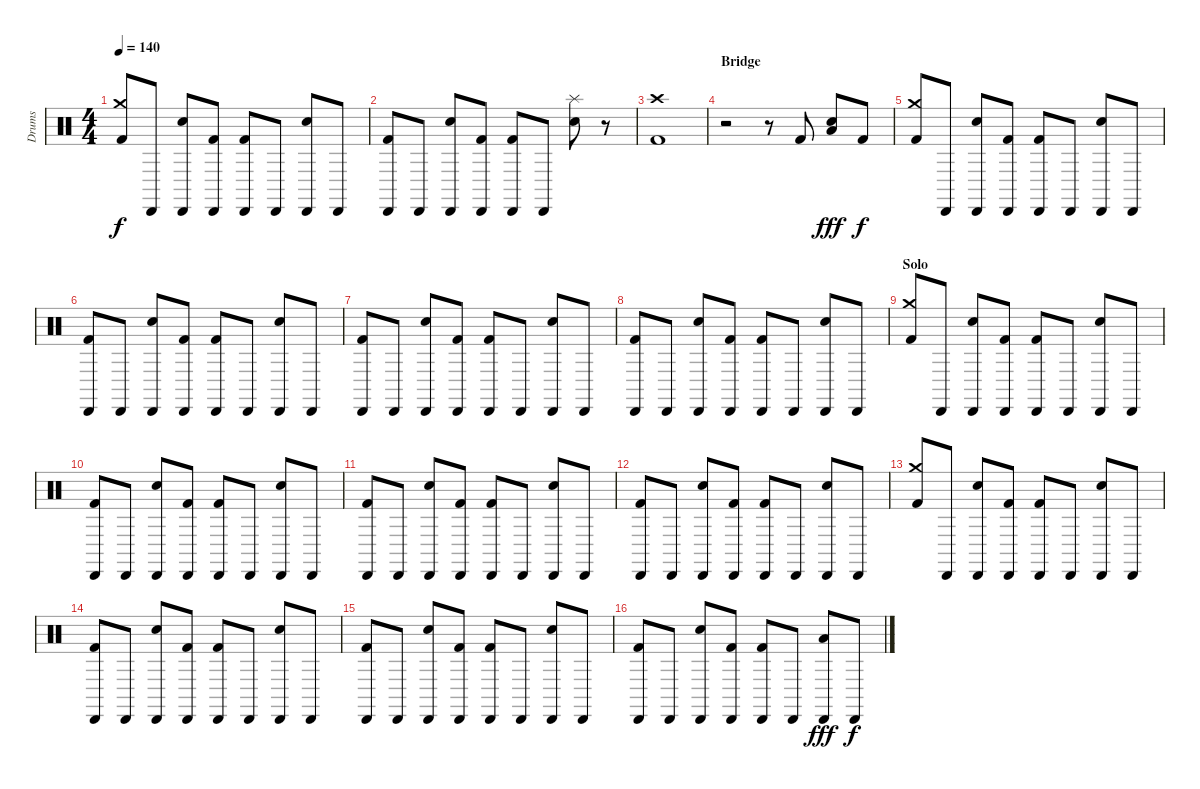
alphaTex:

\track ("Drums" "Drums") {instrument percussion}
\staff {score}
\articulation defaults
\ts (4 4)
\tempo 140
\clef neutral
\ks c
("Crash medium (hit)" "Kick (hit) 2").8{dy f} "Cabasa (hit)".8 ("Cabasa (hit)" "Electric Snare (hit)").8 ("Cabasa (hit)" "Kick (hit) 2").8 ("Cabasa (hit)" "Kick (hit) 2").8 "Cabasa (hit)".8 ("Cabasa (hit)" "Electric Snare (hit)").8 "Cabasa (hit)".8 |
("Cabasa (hit)" "Kick (hit) 2").8 "Cabasa (hit)".8 ("Cabasa (hit)" "Electric Snare (hit)").8 ("Cabasa (hit)" "Kick (hit) 2").8 ("Cabasa (hit)" "Kick (hit) 2").8 "Cabasa (hit)".8 ("Splash (hit)" "Electric Snare (hit)").8 r.8 |
("Crash high (hit)" "Kick (hit) 2").1 |
\section ("" "Bridge")
r.2 r.8 "Kick (hit) 2".8 ("Electric Snare (hit)" "Low Floor Tom (hit)").8{dy fff} "Kick (hit) 2".8{dy f} |
("Crash medium (hit)" "Kick (hit) 2").8 "Cabasa (hit)".8 ("Cabasa (hit)" "Electric Snare (hit)").8 ("Cabasa (hit)" "Kick (hit) 2").8 ("Cabasa (hit)" "Kick (hit) 2").8 "Cabasa (hit)".8 ("Cabasa (hit)" "Electric Snare (hit)").8 "Cabasa (hit)".8 |
("Cabasa (hit)" "Kick (hit) 2").8 "Cabasa (hit)".8 ("Cabasa (hit)" "Electric Snare (hit)").8 ("Cabasa (hit)" "Kick (hit) 2").8 ("Cabasa (hit)" "Kick (hit) 2").8 "Cabasa (hit)".8 ("Cabasa (hit)" "Electric Snare (hit)").8 "Cabasa (hit)".8 |
("Cabasa (hit)" "Kick (hit) 2").8 "Cabasa (hit)".8 ("Cabasa (hit)" "Electric Snare (hit)").8 ("Cabasa (hit)" "Kick (hit) 2").8 ("Cabasa (hit)" "Kick (hit) 2").8 "Cabasa (hit)".8 ("Cabasa (hit)" "Electric Snare (hit)").8 "Cabasa (hit)".8 |
("Cabasa (hit)" "Kick (hit) 2").8 "Cabasa (hit)".8 ("Cabasa (hit)" "Electric Snare (hit)").8 ("Cabasa (hit)" "Kick (hit) 2").8 ("Cabasa (hit)" "Kick (hit) 2").8 "Cabasa (hit)".8 ("Cabasa (hit)" "Electric Snare (hit)").8 "Cabasa (hit)".8 |
\section ("" "Solo")
("Crash medium (hit)" "Kick (hit) 2").8 "Cabasa (hit)".8 ("Cabasa (hit)" "Electric Snare (hit)").8 ("Cabasa (hit)" "Kick (hit) 2").8 ("Cabasa (hit)" "Kick (hit) 2").8 "Cabasa (hit)".8 ("Cabasa (hit)" "Electric Snare (hit)").8 "Cabasa (hit)".8 |
("Cabasa (hit)" "Kick (hit) 2").8 "Cabasa (hit)".8 ("Cabasa (hit)" "Electric Snare (hit)").8 ("Cabasa (hit)" "Kick (hit) 2").8 ("Cabasa (hit)" "Kick (hit) 2").8 "Cabasa (hit)".8 ("Cabasa (hit)" "Electric Snare (hit)").8 "Cabasa (hit)".8 |
("Cabasa (hit)" "Kick (hit) 2").8 "Cabasa (hit)".8 ("Cabasa (hit)" "Electric Snare (hit)").8 ("Cabasa (hit)" "Kick (hit) 2").8 ("Cabasa (hit)" "Kick (hit) 2").8 "Cabasa (hit)".8 ("Cabasa (hit)" "Electric Snare (hit)").8 "Cabasa (hit)".8 |
("Cabasa (hit)" "Kick (hit) 2").8 "Cabasa (hit)".8 ("Cabasa (hit)" "Electric Snare (hit)").8 ("Cabasa (hit)" "Kick (hit) 2").8 ("Cabasa (hit)" "Kick (hit) 2").8 "Cabasa (hit)".8 ("Cabasa (hit)" "Electric Snare (hit)").8 "Cabasa (hit)".8 |
("Crash medium (hit)" "Kick (hit) 2").8 "Cabasa (hit)".8 ("Cabasa (hit)" "Electric Snare (hit)").8 ("Cabasa (hit)" "Kick (hit) 2").8 ("Cabasa (hit)" "Kick (hit) 2").8 "Cabasa (hit)".8 ("Cabasa (hit)" "Electric Snare (hit)").8 "Cabasa (hit)".8 |
("Cabasa (hit)" "Kick (hit) 2").8 "Cabasa (hit)".8 ("Cabasa (hit)" "Electric Snare (hit)").8 ("Cabasa (hit)" "Kick (hit) 2").8 ("Cabasa (hit)" "Kick (hit) 2").8 "Cabasa (hit)".8 ("Cabasa (hit)" "Electric Snare (hit)").8 "Cabasa (hit)".8 |
("Cabasa (hit)" "Kick (hit) 2").8 "Cabasa (hit)".8 ("Cabasa (hit)" "Electric Snare (hit)").8 ("Cabasa (hit)" "Kick (hit) 2").8 ("Cabasa (hit)" "Kick (hit) 2").8 "Cabasa (hit)".8 ("Cabasa (hit)" "Electric Snare (hit)").8 "Cabasa (hit)".8 |
("Cabasa (hit)" "Kick (hit) 2").8 "Cabasa (hit)".8 ("Cabasa (hit)" "Electric Snare (hit)").8 ("Cabasa (hit)" "Kick (hit) 2").8 ("Cabasa (hit)" "Kick (hit) 2").8 "Cabasa (hit)".8 ("Cabasa (hit)" "Low Floor Tom (hit)").8{dy fff} "Cabasa (hit)".8{dy f}
